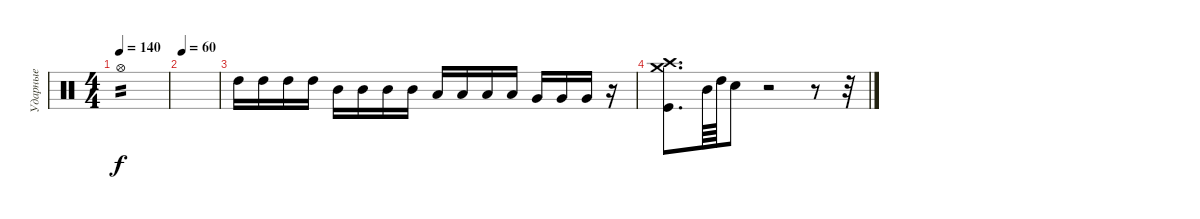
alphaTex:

\track ("Ударные" "Ударные") {instrument percussion}
\staff {score}
\articulation defaults
\ts (4 4)
\tempo 140
\clef neutral
\ks c "Hi-Hat (open)".1{tp 2 dy f}
|
\tempo 60
|
"High Tom (hit)".16 "High Tom (hit)".16 "High Tom (hit)".16 "High Tom (hit)".16 "Mid Tom (hit)".16 "Mid Tom (hit)".16 "Mid Tom (hit)".16 "Mid Tom (hit)".16 "Low Tom (hit)".16 "Low Tom (hit)".16 "Low Tom (hit)".16 "Low Tom (hit)".16 "Very Low Tom (hit)".16 "Very Low Tom (hit)".16 "Very Low Tom (hit)".16 r.16 |
("Kick (hit)" "Crash high (hit)" "Crash medium (hit)").8{d} "Mid Tom (hit)".64 "High Tom (hit)".64 "Snare (hit) 2".8 r.2 r.8 r.32
